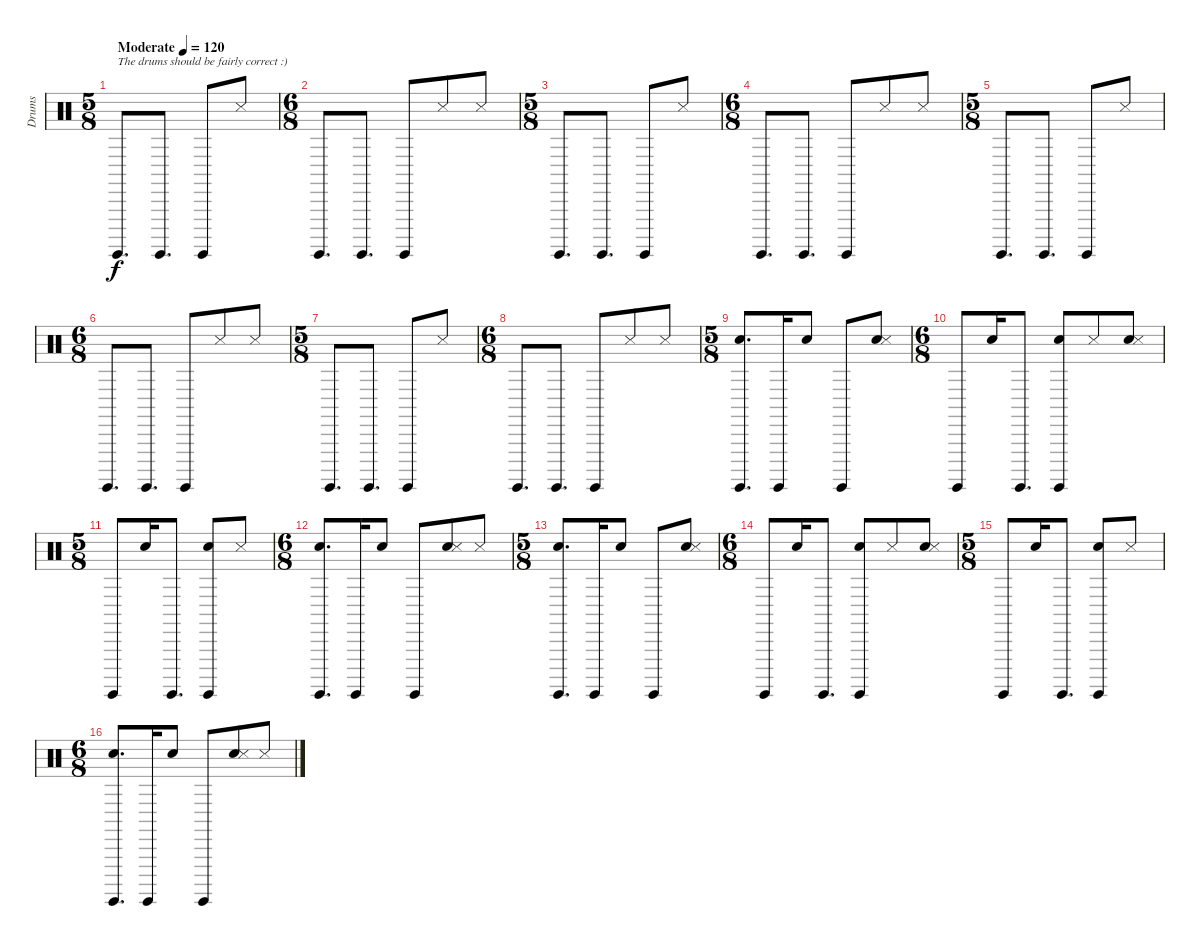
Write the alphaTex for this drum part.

\track ("Drums" "Drums") {instrument percussion}
\staff {score}
\articulation defaults
\ts (5 8)
\tempo (120 "Moderate")
\clef neutral
\ks c "Surdo (hit)".8{d txt "The drums should be fairly correct :)" dy f} "Surdo (hit)".8{d} "Surdo (hit)".8 "Snare (side stick) 3".8
|
\ts (6 8)
"Surdo (hit)".8{d} "Surdo (hit)".8{d} "Surdo (hit)".8 "Snare (side stick) 3".8 "Snare (side stick) 3".8 |
\ts (5 8)
"Surdo (hit)".8{d} "Surdo (hit)".8{d} "Surdo (hit)".8 "Snare (side stick) 3".8 |
\ts (6 8)
"Surdo (hit)".8{d} "Surdo (hit)".8{d} "Surdo (hit)".8 "Snare (side stick) 3".8 "Snare (side stick) 3".8 |
\ts (5 8)
"Surdo (hit)".8{d} "Surdo (hit)".8{d} "Surdo (hit)".8 "Snare (side stick) 3".8 |
\ts (6 8)
"Surdo (hit)".8{d} "Surdo (hit)".8{d} "Surdo (hit)".8 "Snare (side stick) 3".8 "Snare (side stick) 3".8 |
\ts (5 8)
"Surdo (hit)".8{d} "Surdo (hit)".8{d} "Surdo (hit)".8 "Snare (side stick) 3".8 |
\ts (6 8)
"Surdo (hit)".8{d} "Surdo (hit)".8{d} "Surdo (hit)".8 "Snare (side stick) 3".8 "Snare (side stick) 3".8 |
\ts (5 8)
("Hand Clap (hit)" "Surdo (hit)").8{d} "Surdo (hit)".16 "Hand Clap (hit)".8 "Surdo (hit)".8 ("Hand Clap (hit)" "Snare (side stick) 3").8 |
\ts (6 8)
"Surdo (hit)".8 "Hand Clap (hit)".16 "Surdo (hit)".8{d} ("Hand Clap (hit)" "Surdo (hit)").8 "Snare (side stick) 3".8 ("Hand Clap (hit)" "Snare (side stick) 3").8 |
\ts (5 8)
"Surdo (hit)".8 "Hand Clap (hit)".16 "Surdo (hit)".8{d} ("Hand Clap (hit)" "Surdo (hit)").8 "Snare (side stick) 3".8 |
\ts (6 8)
("Hand Clap (hit)" "Surdo (hit)").8{d} "Surdo (hit)".16 "Hand Clap (hit)".8 "Surdo (hit)".8 ("Hand Clap (hit)" "Snare (side stick) 3").8 "Snare (side stick) 3".8 |
\ts (5 8)
("Hand Clap (hit)" "Surdo (hit)").8{d} "Surdo (hit)".16 "Hand Clap (hit)".8 "Surdo (hit)".8 ("Hand Clap (hit)" "Snare (side stick) 3").8 |
\ts (6 8)
"Surdo (hit)".8 "Hand Clap (hit)".16 "Surdo (hit)".8{d} ("Hand Clap (hit)" "Surdo (hit)").8 "Snare (side stick) 3".8 ("Hand Clap (hit)" "Snare (side stick) 3").8 |
\ts (5 8)
"Surdo (hit)".8 "Hand Clap (hit)".16 "Surdo (hit)".8{d} ("Hand Clap (hit)" "Surdo (hit)").8 "Snare (side stick) 3".8 |
\ts (6 8)
("Hand Clap (hit)" "Surdo (hit)").8{d} "Surdo (hit)".16 "Hand Clap (hit)".8 "Surdo (hit)".8 ("Hand Clap (hit)" "Snare (side stick) 3").8 "Snare (side stick) 3".8
